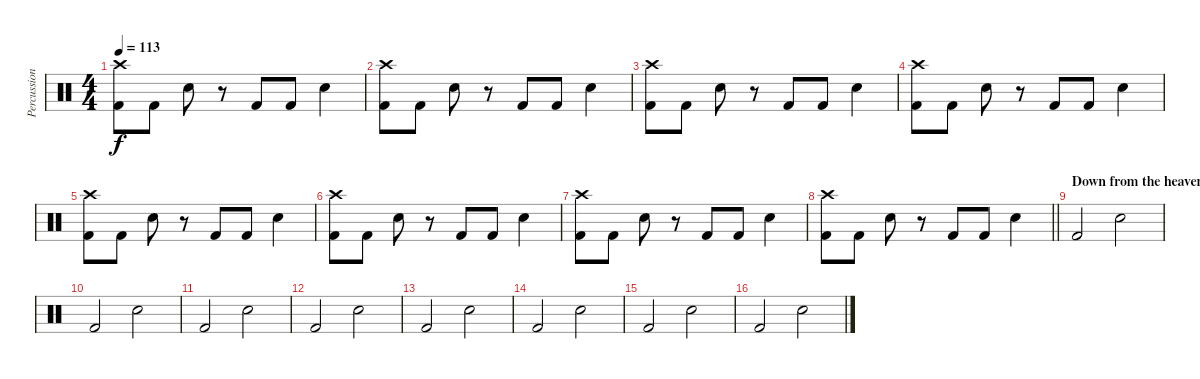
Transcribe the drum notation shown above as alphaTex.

\track ("Percussion" "Percussion") {instrument percussion}
\staff {score}
\articulation defaults
\ts (4 4)
\section ("" "")
\tempo 113
\clef neutral
\ks c
("Crash high (hit)" "Kick (hit) 2").8{dy f} "Kick (hit) 2".8 "Snare (hit) 2".8 r.8 "Kick (hit) 2".8 "Kick (hit) 2".8 "Snare (hit) 2".4 |
("Crash high (hit)" "Kick (hit) 2").8 "Kick (hit) 2".8 "Snare (hit) 2".8 r.8 "Kick (hit) 2".8 "Kick (hit) 2".8 "Snare (hit) 2".4 |
("Crash high (hit)" "Kick (hit) 2").8 "Kick (hit) 2".8 "Snare (hit) 2".8 r.8 "Kick (hit) 2".8 "Kick (hit) 2".8 "Snare (hit) 2".4 |
("Crash high (hit)" "Kick (hit) 2").8 "Kick (hit) 2".8 "Snare (hit) 2".8 r.8 "Kick (hit) 2".8 "Kick (hit) 2".8 "Snare (hit) 2".4 |
("Crash high (hit)" "Kick (hit) 2").8 "Kick (hit) 2".8 "Snare (hit) 2".8 r.8 "Kick (hit) 2".8 "Kick (hit) 2".8 "Snare (hit) 2".4 |
("Crash high (hit)" "Kick (hit) 2").8 "Kick (hit) 2".8 "Snare (hit) 2".8 r.8 "Kick (hit) 2".8 "Kick (hit) 2".8 "Snare (hit) 2".4 |
("Crash high (hit)" "Kick (hit) 2").8 "Kick (hit) 2".8 "Snare (hit) 2".8 r.8 "Kick (hit) 2".8 "Kick (hit) 2".8 "Snare (hit) 2".4 |
\barLineRight lightlight
("Crash high (hit)" "Kick (hit) 2").8 "Kick (hit) 2".8 "Snare (hit) 2".8 r.8 "Kick (hit) 2".8 "Kick (hit) 2".8 "Snare (hit) 2".4 |
\section ("" "Down from the heavens...")
"Kick (hit) 2".2 "Snare (hit) 2".2 |
"Kick (hit) 2".2 "Snare (hit) 2".2 |
"Kick (hit) 2".2 "Snare (hit) 2".2 |
"Kick (hit) 2".2 "Snare (hit) 2".2 |
"Kick (hit) 2".2 "Snare (hit) 2".2 |
"Kick (hit) 2".2 "Snare (hit) 2".2 |
"Kick (hit) 2".2 "Snare (hit) 2".2 |
"Kick (hit) 2".2 "Snare (hit) 2".2
